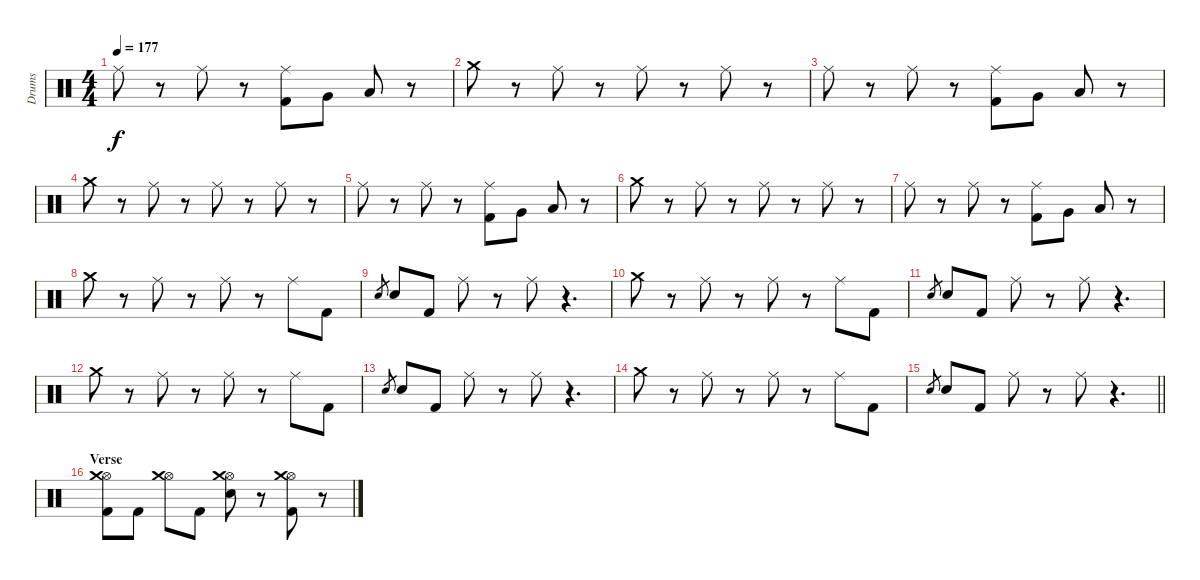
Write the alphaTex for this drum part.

\track ("Drums" "Drums") {instrument percussion}
\staff {score}
\articulation defaults
\ts (4 4)
\tempo 177
\clef neutral
\ks c "Ride (middle)".8{dy f}
r.8 "Ride (middle)".8 r.8 ("Ride (middle)" "Kick (hit) 2").8 "Very Low Tom (hit)".8 "Low Floor Tom (hit)".8 r.8 |
"Crash medium (hit)".8 r.8 "Ride (middle)".8 r.8 "Ride (middle)".8 r.8 "Ride (middle)".8 r.8 |
"Ride (middle)".8 r.8 "Ride (middle)".8 r.8 ("Ride (middle)" "Kick (hit) 2").8 "Very Low Tom (hit)".8 "Low Floor Tom (hit)".8 r.8 |
"Crash medium (hit)".8 r.8 "Ride (middle)".8 r.8 "Ride (middle)".8 r.8 "Ride (middle)".8 r.8 |
"Ride (middle)".8 r.8 "Ride (middle)".8 r.8 ("Ride (middle)" "Kick (hit) 2").8 "Very Low Tom (hit)".8 "Low Floor Tom (hit)".8 r.8 |
"Crash medium (hit)".8 r.8 "Ride (middle)".8 r.8 "Ride (middle)".8 r.8 "Ride (middle)".8 r.8 |
"Ride (middle)".8 r.8 "Ride (middle)".8 r.8 ("Ride (middle)" "Kick (hit) 2").8 "Very Low Tom (hit)".8 "Low Floor Tom (hit)".8 r.8 |
"Crash medium (hit)".8 r.8 "Ride (middle)".8 r.8 "Ride (middle)".8 r.8 "Ride (middle)".8 "Kick (hit) 2".8 |
"Electric Snare (hit)".8{gr} "Electric Snare (hit)".8 "Kick (hit) 2".8 "Ride (middle)".8 r.8 "Ride (middle)".8 r.4{d} |
"Crash medium (hit)".8 r.8 "Ride (middle)".8 r.8 "Ride (middle)".8 r.8 "Ride (middle)".8 "Kick (hit) 2".8 |
"Electric Snare (hit)".8{gr} "Electric Snare (hit)".8 "Kick (hit) 2".8 "Ride (middle)".8 r.8 "Ride (middle)".8 r.4{d} |
"Crash medium (hit)".8 r.8 "Ride (middle)".8 r.8 "Ride (middle)".8 r.8 "Ride (middle)".8 "Kick (hit) 2".8 |
"Electric Snare (hit)".8{gr} "Electric Snare (hit)".8 "Kick (hit) 2".8 "Ride (middle)".8 r.8 "Ride (middle)".8 r.4{d} |
"Crash medium (hit)".8 r.8 "Ride (middle)".8 r.8 "Ride (middle)".8 r.8 "Ride (middle)".8 "Kick (hit) 2".8 |
\barLineRight lightlight "Electric Snare (hit)".8{gr} "Electric Snare (hit)".8 "Kick (hit) 2".8 "Ride (middle)".8
r.8 "Ride (middle)".8 r.4{d} |
\section ("" "Verse")
("Hi-Hat (open)" "Crash medium (hit)" "Kick (hit) 2").8 "Kick (hit) 2".8 ("Hi-Hat (open)" "Crash medium (hit)").8 "Kick (hit) 2".8 ("Hi-Hat (open)" "Crash medium (hit)" "Electric Snare (hit)").8 r.8 ("Hi-Hat (open)" "Crash medium (hit)" "Kick (hit) 2").8 r.8
